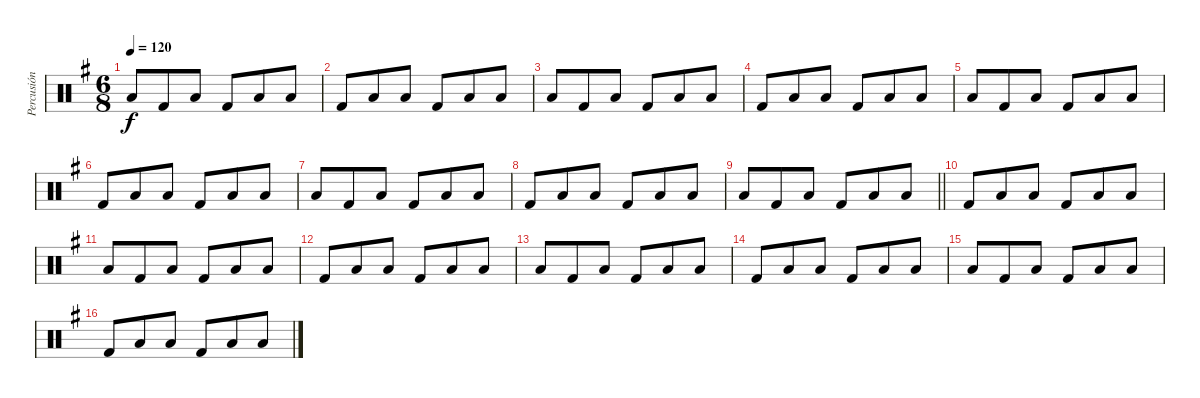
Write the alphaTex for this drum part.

\track ("Percusión" "Percusión") {instrument percussion}
\staff {score}
\articulation defaults
\ts (6 8)
\tempo 120
\clef neutral
\ks g "Low Tom (hit)".8{dy f} "Kick (hit) 2".8 "Low Tom (hit)".8 "Kick (hit) 2".8 "Low Tom (hit)".8 "Low Tom (hit)".8
|
"Kick (hit) 2".8 "Low Tom (hit)".8 "Low Tom (hit)".8 "Kick (hit) 2".8 "Low Tom (hit)".8 "Low Tom (hit)".8 |
"Low Tom (hit)".8 "Kick (hit) 2".8 "Low Tom (hit)".8 "Kick (hit) 2".8 "Low Tom (hit)".8 "Low Tom (hit)".8 |
"Kick (hit) 2".8 "Low Tom (hit)".8 "Low Tom (hit)".8 "Kick (hit) 2".8 "Low Tom (hit)".8 "Low Tom (hit)".8 |
"Low Tom (hit)".8 "Kick (hit) 2".8 "Low Tom (hit)".8 "Kick (hit) 2".8 "Low Tom (hit)".8 "Low Tom (hit)".8 |
"Kick (hit) 2".8 "Low Tom (hit)".8 "Low Tom (hit)".8 "Kick (hit) 2".8 "Low Tom (hit)".8 "Low Tom (hit)".8 |
"Low Tom (hit)".8 "Kick (hit) 2".8 "Low Tom (hit)".8 "Kick (hit) 2".8 "Low Tom (hit)".8 "Low Tom (hit)".8 |
"Kick (hit) 2".8 "Low Tom (hit)".8 "Low Tom (hit)".8 "Kick (hit) 2".8 "Low Tom (hit)".8 "Low Tom (hit)".8 |
\barLineRight lightlight "Low Tom (hit)".8 "Kick (hit) 2".8 "Low Tom (hit)".8 "Kick (hit) 2".8 "Low Tom (hit)".8 "Low Tom (hit)".8
|
"Kick (hit) 2".8 "Low Tom (hit)".8 "Low Tom (hit)".8 "Kick (hit) 2".8 "Low Tom (hit)".8 "Low Tom (hit)".8 |
"Low Tom (hit)".8 "Kick (hit) 2".8 "Low Tom (hit)".8 "Kick (hit) 2".8 "Low Tom (hit)".8 "Low Tom (hit)".8 |
"Kick (hit) 2".8 "Low Tom (hit)".8 "Low Tom (hit)".8 "Kick (hit) 2".8 "Low Tom (hit)".8 "Low Tom (hit)".8 |
"Low Tom (hit)".8 "Kick (hit) 2".8 "Low Tom (hit)".8 "Kick (hit) 2".8 "Low Tom (hit)".8 "Low Tom (hit)".8 |
"Kick (hit) 2".8 "Low Tom (hit)".8 "Low Tom (hit)".8 "Kick (hit) 2".8 "Low Tom (hit)".8 "Low Tom (hit)".8 |
"Low Tom (hit)".8 "Kick (hit) 2".8 "Low Tom (hit)".8 "Kick (hit) 2".8 "Low Tom (hit)".8 "Low Tom (hit)".8 |
"Kick (hit) 2".8 "Low Tom (hit)".8 "Low Tom (hit)".8 "Kick (hit) 2".8 "Low Tom (hit)".8 "Low Tom (hit)".8
